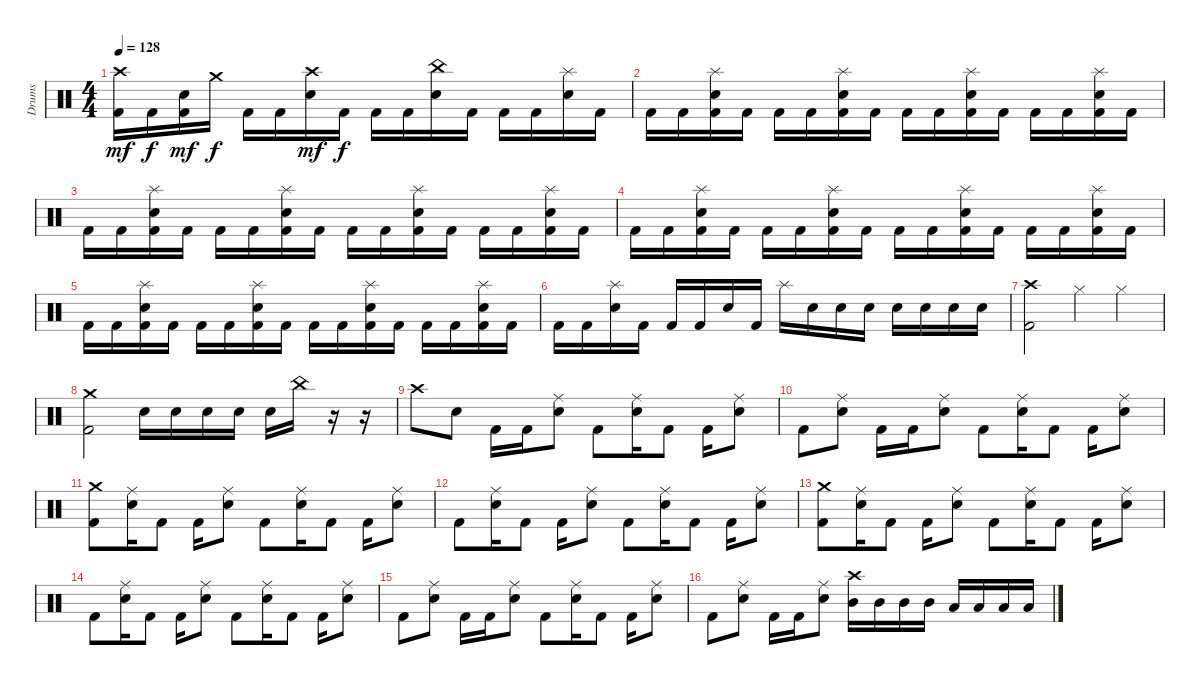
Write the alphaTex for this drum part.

\track ("Drums" "Drums") {instrument percussion}
\staff {score}
\articulation defaults
\ts (4 4)
\tempo 128
\clef neutral
\ks c
("Crash high (hit)" "Kick (hit) 2").16{dy mf} "Kick (hit) 2".16{dy f} ("Snare (hit) 2" "Kick (hit) 2").16{dy mf} "Crash medium (hit)".16{dy f} "Kick (hit) 2".16 "Kick (hit) 2".16 ("Crash high (hit)" "Snare (hit) 2").16{dy mf} "Kick (hit) 2".16{dy f} "Kick (hit) 2".16 "Kick (hit) 2".16 ("China (hit)" "Snare (hit) 2").16 "Kick (hit) 2".16 "Kick (hit) 2".16 "Kick (hit) 2".16 ("Splash (hit)" "Snare (hit) 2").16 "Kick (hit) 2".16 |
"Kick (hit) 2".16 "Kick (hit) 2".16 ("Splash (hit)" "Snare (hit) 2" "Kick (hit) 2").16 "Kick (hit) 2".16 "Kick (hit) 2".16 "Kick (hit) 2".16 ("Splash (hit)" "Snare (hit) 2" "Kick (hit) 2").16 "Kick (hit) 2".16 "Kick (hit) 2".16 "Kick (hit) 2".16 ("Splash (hit)" "Snare (hit) 2" "Kick (hit) 2").16 "Kick (hit) 2".16 "Kick (hit) 2".16 "Kick (hit) 2".16 ("Splash (hit)" "Snare (hit) 2" "Kick (hit) 2").16 "Kick (hit) 2".16 |
"Kick (hit) 2".16 "Kick (hit) 2".16 ("Splash (hit)" "Snare (hit) 2" "Kick (hit) 2").16 "Kick (hit) 2".16 "Kick (hit) 2".16 "Kick (hit) 2".16 ("Splash (hit)" "Snare (hit) 2" "Kick (hit) 2").16 "Kick (hit) 2".16 "Kick (hit) 2".16 "Kick (hit) 2".16 ("Splash (hit)" "Snare (hit) 2" "Kick (hit) 2").16 "Kick (hit) 2".16 "Kick (hit) 2".16 "Kick (hit) 2".16 ("Splash (hit)" "Snare (hit) 2" "Kick (hit) 2").16 "Kick (hit) 2".16 |
"Kick (hit) 2".16 "Kick (hit) 2".16 ("Splash (hit)" "Snare (hit) 2" "Kick (hit) 2").16 "Kick (hit) 2".16 "Kick (hit) 2".16 "Kick (hit) 2".16 ("Splash (hit)" "Snare (hit) 2" "Kick (hit) 2").16 "Kick (hit) 2".16 "Kick (hit) 2".16 "Kick (hit) 2".16 ("Splash (hit)" "Snare (hit) 2" "Kick (hit) 2").16 "Kick (hit) 2".16 "Kick (hit) 2".16 "Kick (hit) 2".16 ("Splash (hit)" "Snare (hit) 2" "Kick (hit) 2").16 "Kick (hit) 2".16 |
"Kick (hit) 2".16 "Kick (hit) 2".16 ("Splash (hit)" "Snare (hit) 2" "Kick (hit) 2").16 "Kick (hit) 2".16 "Kick (hit) 2".16 "Kick (hit) 2".16 ("Splash (hit)" "Snare (hit) 2" "Kick (hit) 2").16 "Kick (hit) 2".16 "Kick (hit) 2".16 "Kick (hit) 2".16 ("Splash (hit)" "Snare (hit) 2" "Kick (hit) 2").16 "Kick (hit) 2".16 "Kick (hit) 2".16 "Kick (hit) 2".16 ("Splash (hit)" "Snare (hit) 2" "Kick (hit) 2").16 "Kick (hit) 2".16 |
"Kick (hit) 2".16 "Kick (hit) 2".16 ("Splash (hit)" "Snare (hit) 2").16 "Kick (hit) 2".16 "Kick (hit) 2".16 "Kick (hit) 2".16 "Snare (hit) 2".16 "Kick (hit) 2".16 "Splash (hit)".16 "Snare (hit) 2".16 "Snare (hit) 2".16 "Snare (hit) 2".16 "Snare (hit) 2".16 "Snare (hit) 2".16 "Snare (hit) 2".16 "Snare (hit) 2".16 |
("Crash high (hit)" "Kick (hit) 2").2 "Hi-Hat (closed)".4 "Hi-Hat (closed)".4 |
("Crash medium (hit)" "Kick (hit) 2").2 "Snare (hit) 2".16 "Snare (hit) 2".16 "Snare (hit) 2".16 "Snare (hit) 2".16 "Snare (hit) 2".16 "China (hit)".16 r.16 r.16 |
"Crash high (hit)".8 "Snare (hit) 2".8 "Kick (hit) 2".16 "Kick (hit) 2".16 ("Ride (middle)" "Snare (hit) 2").8 "Kick (hit) 2".8 ("Ride (middle)" "Snare (hit) 2").16 "Kick (hit) 2".8 "Kick (hit) 2".16 ("Ride (middle)" "Snare (hit) 2").8 |
"Kick (hit) 2".8 ("Ride (middle)" "Snare (hit) 2").8 "Kick (hit) 2".16 "Kick (hit) 2".16 ("Ride (middle)" "Snare (hit) 2").8 "Kick (hit) 2".8 ("Ride (middle)" "Snare (hit) 2").16 "Kick (hit) 2".8 "Kick (hit) 2".16 ("Ride (middle)" "Snare (hit) 2").8 |
("Crash medium (hit)" "Kick (hit) 2").8 ("Ride (middle)" "Snare (hit) 2").16 "Kick (hit) 2".8 "Kick (hit) 2".16 ("Ride (middle)" "Snare (hit) 2").8 "Kick (hit) 2".8 ("Ride (middle)" "Snare (hit) 2").16 "Kick (hit) 2".8 "Kick (hit) 2".16 ("Ride (middle)" "Snare (hit) 2").8 |
"Kick (hit) 2".8 ("Ride (middle)" "Snare (hit) 2").16 "Kick (hit) 2".8 "Kick (hit) 2".16 ("Ride (middle)" "Snare (hit) 2").8 "Kick (hit) 2".8 ("Ride (middle)" "Snare (hit) 2").16 "Kick (hit) 2".8 "Kick (hit) 2".16 ("Ride (middle)" "Snare (hit) 2").8 |
("Crash medium (hit)" "Kick (hit) 2").8 ("Ride (middle)" "Snare (hit) 2").16 "Kick (hit) 2".8 "Kick (hit) 2".16 ("Ride (middle)" "Snare (hit) 2").8 "Kick (hit) 2".8 ("Ride (middle)" "Snare (hit) 2").16 "Kick (hit) 2".8 "Kick (hit) 2".16 ("Ride (middle)" "Snare (hit) 2").8 |
"Kick (hit) 2".8 ("Ride (middle)" "Snare (hit) 2").16 "Kick (hit) 2".8 "Kick (hit) 2".16 ("Ride (middle)" "Snare (hit) 2").8 "Kick (hit) 2".8 ("Ride (middle)" "Snare (hit) 2").16 "Kick (hit) 2".8 "Kick (hit) 2".16 ("Ride (middle)" "Snare (hit) 2").8 |
"Kick (hit) 2".8 ("Ride (middle)" "Snare (hit) 2").8 "Kick (hit) 2".16 "Kick (hit) 2".16 ("Ride (middle)" "Snare (hit) 2").8 "Kick (hit) 2".8 ("Ride (middle)" "Snare (hit) 2").16 "Kick (hit) 2".8 "Kick (hit) 2".16 ("Ride (middle)" "Snare (hit) 2").8 |
"Kick (hit) 2".8 ("Ride (middle)" "Snare (hit) 2").8 "Kick (hit) 2".16 "Kick (hit) 2".16 ("Ride (middle)" "Snare (hit) 2").8 ("Crash high (hit)" "Mid Tom (hit)").16 "Mid Tom (hit)".16 "Mid Tom (hit)".16 "Mid Tom (hit)".16 "Low Tom (hit)".16 "Low Tom (hit)".16 "Low Tom (hit)".16 "Low Tom (hit)".16
